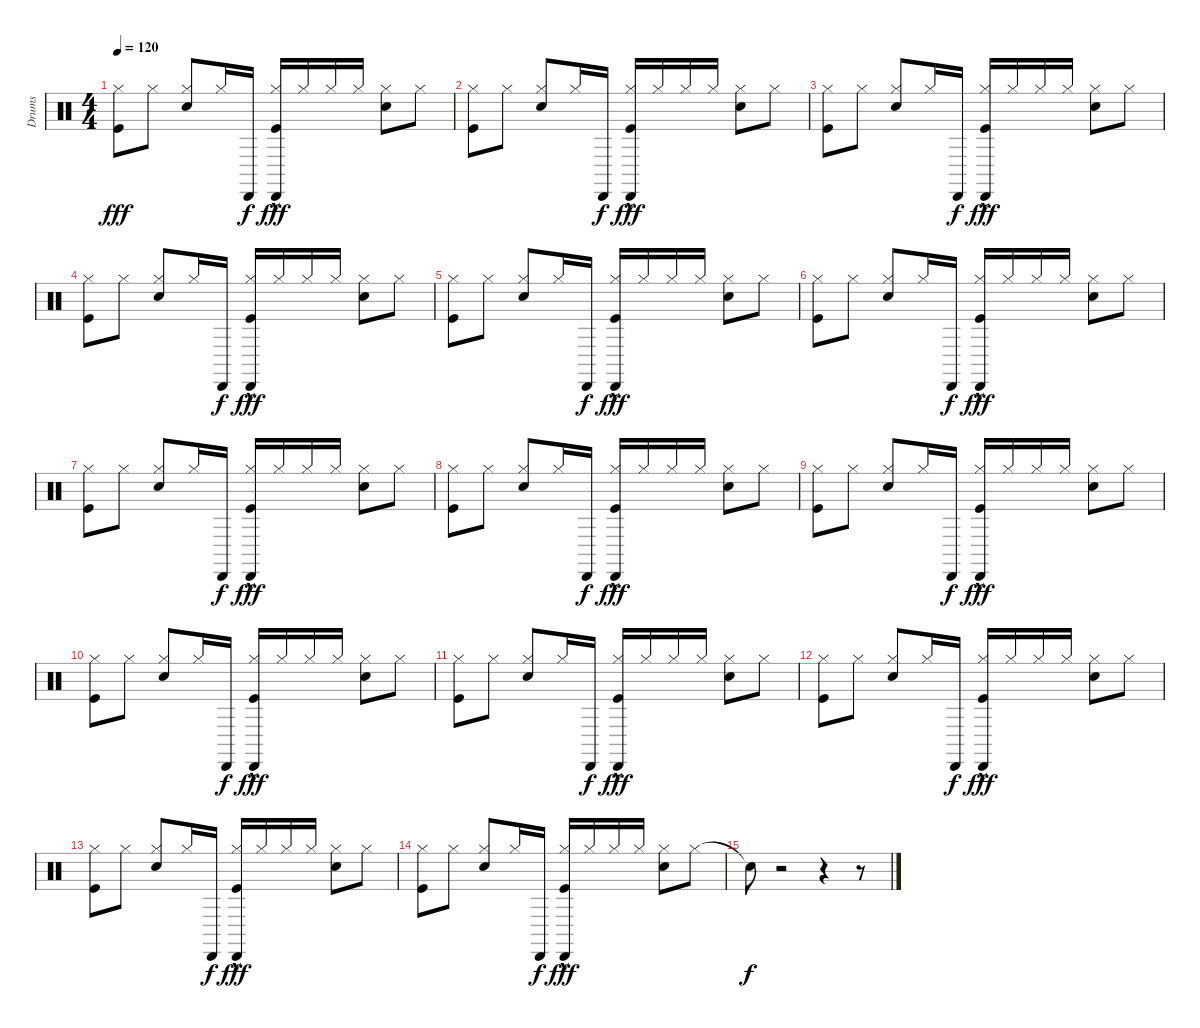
\track ("Drums" "Drums") {instrument percussion}
\staff {score}
\articulation defaults
\ts (4 4)
\tempo 120
\clef neutral
\ks c
("Kick (hit)" "Hi-Hat (closed)").8{dy fff} "Hi-Hat (closed)".8 ("Snare (hit) 2" "Hi-Hat (closed)").8 "Hi-Hat (closed)".16 "Cabasa (hit)".16{dy f} ("Cabasa (hit)"{hac} "Kick (hit)" "Hi-Hat (closed)").16{dy fff} "Hi-Hat (closed)".16 "Hi-Hat (closed)".16 "Hi-Hat (closed)".16 ("Snare (hit) 2" "Hi-Hat (closed)").8 "Hi-Hat (closed)".8 |
("Kick (hit)" "Hi-Hat (closed)").8 "Hi-Hat (closed)".8 ("Snare (hit) 2" "Hi-Hat (closed)").8 "Hi-Hat (closed)".16 "Cabasa (hit)".16{dy f} ("Cabasa (hit)"{hac} "Kick (hit)" "Hi-Hat (closed)").16{dy fff} "Hi-Hat (closed)".16 "Hi-Hat (closed)".16 "Hi-Hat (closed)".16 ("Snare (hit) 2" "Hi-Hat (closed)").8 "Hi-Hat (closed)".8 |
("Kick (hit)" "Hi-Hat (closed)").8 "Hi-Hat (closed)".8 ("Snare (hit) 2" "Hi-Hat (closed)").8 "Hi-Hat (closed)".16 "Cabasa (hit)".16{dy f} ("Cabasa (hit)"{hac} "Kick (hit)" "Hi-Hat (closed)").16{dy fff} "Hi-Hat (closed)".16 "Hi-Hat (closed)".16 "Hi-Hat (closed)".16 ("Snare (hit) 2" "Hi-Hat (closed)").8 "Hi-Hat (closed)".8 |
("Kick (hit)" "Hi-Hat (closed)").8 "Hi-Hat (closed)".8 ("Snare (hit) 2" "Hi-Hat (closed)").8 "Hi-Hat (closed)".16 "Cabasa (hit)".16{dy f} ("Cabasa (hit)"{hac} "Kick (hit)" "Hi-Hat (closed)").16{dy fff} "Hi-Hat (closed)".16 "Hi-Hat (closed)".16 "Hi-Hat (closed)".16 ("Snare (hit) 2" "Hi-Hat (closed)").8 "Hi-Hat (closed)".8 |
("Kick (hit)" "Hi-Hat (closed)").8 "Hi-Hat (closed)".8 ("Snare (hit) 2" "Hi-Hat (closed)").8 "Hi-Hat (closed)".16 "Cabasa (hit)".16{dy f} ("Cabasa (hit)"{hac} "Kick (hit)" "Hi-Hat (closed)").16{dy fff} "Hi-Hat (closed)".16 "Hi-Hat (closed)".16 "Hi-Hat (closed)".16 ("Snare (hit) 2" "Hi-Hat (closed)").8 "Hi-Hat (closed)".8 |
("Kick (hit)" "Hi-Hat (closed)").8 "Hi-Hat (closed)".8 ("Snare (hit) 2" "Hi-Hat (closed)").8 "Hi-Hat (closed)".16 "Cabasa (hit)".16{dy f} ("Cabasa (hit)"{hac} "Kick (hit)" "Hi-Hat (closed)").16{dy fff} "Hi-Hat (closed)".16 "Hi-Hat (closed)".16 "Hi-Hat (closed)".16 ("Snare (hit) 2" "Hi-Hat (closed)").8 "Hi-Hat (closed)".8 |
("Kick (hit)" "Hi-Hat (closed)").8 "Hi-Hat (closed)".8 ("Snare (hit) 2" "Hi-Hat (closed)").8 "Hi-Hat (closed)".16 "Cabasa (hit)".16{dy f} ("Cabasa (hit)"{hac} "Kick (hit)" "Hi-Hat (closed)").16{dy fff} "Hi-Hat (closed)".16 "Hi-Hat (closed)".16 "Hi-Hat (closed)".16 ("Snare (hit) 2" "Hi-Hat (closed)").8 "Hi-Hat (closed)".8 |
("Kick (hit)" "Hi-Hat (closed)").8 "Hi-Hat (closed)".8{volume 12} ("Snare (hit) 2" "Hi-Hat (closed)").8{volume 12} "Hi-Hat (closed)".16{volume 12} "Cabasa (hit)".16{dy f volume 12} ("Cabasa (hit)"{hac} "Kick (hit)" "Hi-Hat (closed)").16{dy fff} "Hi-Hat (closed)".16{volume 11} "Hi-Hat (closed)".16{volume 11} "Hi-Hat (closed)".16{volume 11} ("Snare (hit) 2" "Hi-Hat (closed)").8{volume 11} "Hi-Hat (closed)".8{volume 11} |
("Kick (hit)" "Hi-Hat (closed)").8{volume 10} "Hi-Hat (closed)".8{volume 10} ("Snare (hit) 2" "Hi-Hat (closed)").8{volume 10} "Hi-Hat (closed)".16{volume 9} "Cabasa (hit)".16{dy f volume 9} ("Cabasa (hit)"{hac} "Kick (hit)" "Hi-Hat (closed)").16{dy fff volume 9} "Hi-Hat (closed)".16{volume 9} "Hi-Hat (closed)".16 "Hi-Hat (closed)".16{volume 8} ("Snare (hit) 2" "Hi-Hat (closed)").8{volume 8} "Hi-Hat (closed)".8{volume 8} |
("Kick (hit)" "Hi-Hat (closed)").8{volume 8} "Hi-Hat (closed)".8{volume 8} ("Snare (hit) 2" "Hi-Hat (closed)").8{volume 7} "Hi-Hat (closed)".16{volume 7} "Cabasa (hit)".16{dy f volume 7} ("Cabasa (hit)"{hac} "Kick (hit)" "Hi-Hat (closed)").16{dy fff volume 7} "Hi-Hat (closed)".16{volume 7} "Hi-Hat (closed)".16{volume 6} "Hi-Hat (closed)".16{volume 6} ("Snare (hit) 2" "Hi-Hat (closed)").8{volume 6} "Hi-Hat (closed)".8{volume 6} |
("Kick (hit)" "Hi-Hat (closed)").8{volume 6} "Hi-Hat (closed)".8{volume 5} ("Snare (hit) 2" "Hi-Hat (closed)").8{volume 5} "Hi-Hat (closed)".16{volume 4} "Cabasa (hit)".16{dy f} ("Cabasa (hit)"{hac} "Kick (hit)" "Hi-Hat (closed)").16{dy fff volume 4} "Hi-Hat (closed)".16{volume 4} "Hi-Hat (closed)".16{volume 4} "Hi-Hat (closed)".16 ("Snare (hit) 2" "Hi-Hat (closed)").8 "Hi-Hat (closed)".8{volume 3} |
("Kick (hit)" "Hi-Hat (closed)").8{volume 3} "Hi-Hat (closed)".8{volume 3} ("Snare (hit) 2" "Hi-Hat (closed)").8{volume 2} "Hi-Hat (closed)".16{volume 2} "Cabasa (hit)".16{dy f} ("Cabasa (hit)"{hac} "Kick (hit)" "Hi-Hat (closed)").16{dy fff} "Hi-Hat (closed)".16{volume 2} "Hi-Hat (closed)".16 "Hi-Hat (closed)".16 ("Snare (hit) 2" "Hi-Hat (closed)").8 "Hi-Hat (closed)".8{volume 1} |
("Kick (hit)" "Hi-Hat (closed)").8{volume 1} "Hi-Hat (closed)".8{volume 1} ("Snare (hit) 2" "Hi-Hat (closed)").8 "Hi-Hat (closed)".16{volume 1} "Cabasa (hit)".16{dy f} ("Cabasa (hit)"{hac} "Kick (hit)" "Hi-Hat (closed)").16{dy fff volume 0} "Hi-Hat (closed)".16{volume 0} "Hi-Hat (closed)".16 "Hi-Hat (closed)".16{volume 0} ("Snare (hit) 2" "Hi-Hat (closed)").8 "Hi-Hat (closed)".8{volume 0} |
("Kick (hit)" "Hi-Hat (closed)").8{volume 0} "Hi-Hat (closed)".8 ("Snare (hit) 2" "Hi-Hat (closed)").8 "Hi-Hat (closed)".16 "Cabasa (hit)".16{dy f} ("Cabasa (hit)" "Kick (hit)"{hac} "Hi-Hat (closed)").16{dy fff} "Hi-Hat (closed)".16 "Hi-Hat (closed)".16 "Hi-Hat (closed)".16 ("Snare (hit) 2" "Hi-Hat (closed)").8 "Hi-Hat (closed)".8 |
"Snare (hit)"{t}.8{dy f} r.2 r.4 r.8
